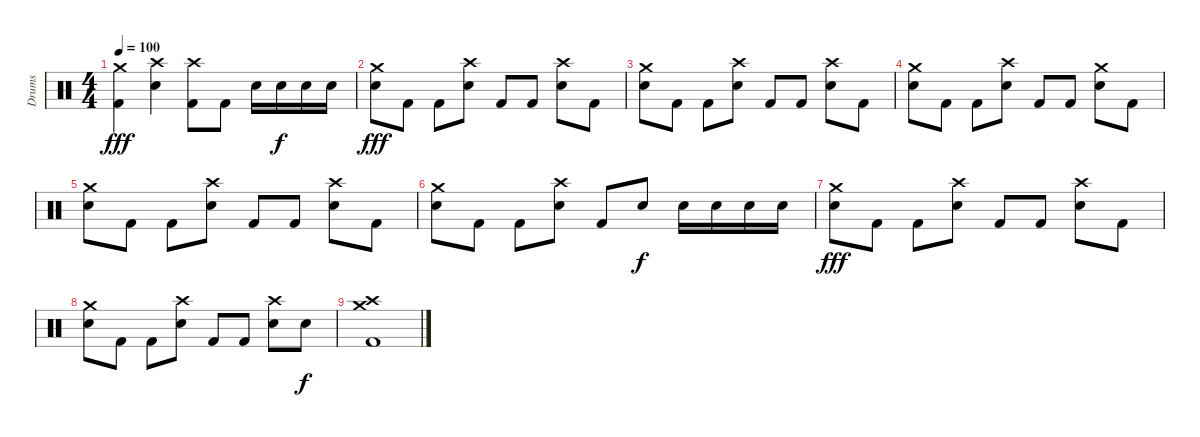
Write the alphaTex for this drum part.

\track ("Drums" "Drums") {instrument percussion}
\staff {score}
\articulation defaults
\ts (4 4)
\tempo 100
\clef neutral
\ks c
("Crash medium (hit)" "Kick (hit) 2").4{dy fff} ("Crash high (hit)" "Snare (hit) 2").4 ("Crash high (hit)" "Kick (hit) 2").8 "Kick (hit) 2".8 "Snare (hit) 2".16 "Snare (hit) 2".16{dy f} "Snare (hit) 2".16 "Snare (hit) 2".16 |
("Crash medium (hit)" "Snare (hit) 2").8{dy fff} "Kick (hit) 2".8 "Kick (hit) 2".8 ("Crash high (hit)" "Snare (hit) 2").8 "Kick (hit) 2".8 "Kick (hit) 2".8 ("Crash high (hit)" "Snare (hit) 2").8 "Kick (hit) 2".8 |
("Crash medium (hit)" "Snare (hit) 2").8 "Kick (hit) 2".8 "Kick (hit) 2".8 ("Crash high (hit)" "Snare (hit) 2").8 "Kick (hit) 2".8 "Kick (hit) 2".8 ("Crash high (hit)" "Snare (hit) 2").8 "Kick (hit) 2".8 |
("Crash medium (hit)" "Snare (hit) 2").8 "Kick (hit) 2".8 "Kick (hit) 2".8 ("Crash high (hit)" "Snare (hit) 2").8 "Kick (hit) 2".8 "Kick (hit) 2".8 ("Crash medium (hit)" "Snare (hit) 2").8 "Kick (hit) 2".8 |
("Crash medium (hit)" "Snare (hit) 2").8 "Kick (hit) 2".8 "Kick (hit) 2".8 ("Crash high (hit)" "Snare (hit) 2").8 "Kick (hit) 2".8 "Kick (hit) 2".8 ("Crash high (hit)" "Snare (hit) 2").8 "Kick (hit) 2".8 |
("Crash medium (hit)" "Snare (hit) 2").8 "Kick (hit) 2".8 "Kick (hit) 2".8 ("Crash high (hit)" "Snare (hit) 2").8 "Kick (hit) 2".8 "Snare (hit) 2".8{dy f} "Snare (hit) 2".16 "Snare (hit) 2".16 "Snare (hit) 2".16 "Snare (hit) 2".16 |
("Crash medium (hit)" "Snare (hit) 2").8{dy fff} "Kick (hit) 2".8 "Kick (hit) 2".8 ("Crash high (hit)" "Snare (hit) 2").8 "Kick (hit) 2".8 "Kick (hit) 2".8 ("Crash high (hit)" "Snare (hit) 2").8 "Kick (hit) 2".8 |
("Crash medium (hit)" "Snare (hit) 2").8 "Kick (hit) 2".8 "Kick (hit) 2".8 ("Crash high (hit)" "Snare (hit) 2").8 "Kick (hit) 2".8 "Kick (hit) 2".8 ("Crash high (hit)" "Snare (hit) 2").8 "Snare (hit) 2".8{dy f} |
("Crash medium (hit)" "Crash high (hit)" "Kick (hit) 2").1
